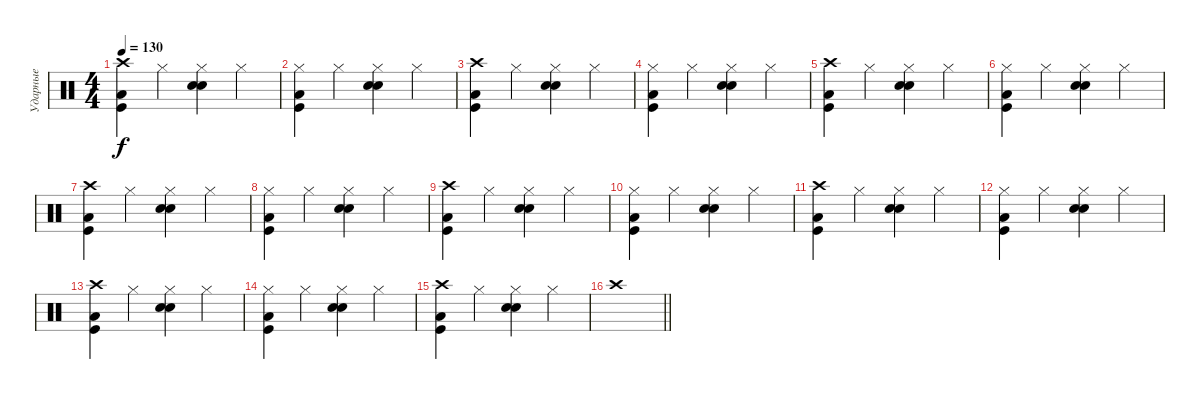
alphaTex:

\track ("Ударные" "Ударные") {instrument percussion}
\staff {score}
\articulation defaults
\ts (4 4)
\tempo 130
\clef neutral
\ks c
("Crash high (hit)" "Low Tom (hit)" "Kick (hit)").4{dy f} "Hi-Hat (closed)".4 ("Hi-Hat (closed)" "Electric Snare (hit)" "Snare (hit) 2").4 "Hi-Hat (closed)".4 |
("Hi-Hat (closed)" "Low Tom (hit)" "Kick (hit)").4 "Hi-Hat (closed)".4 ("Hi-Hat (closed)" "Electric Snare (hit)" "Snare (hit) 2").4 "Hi-Hat (closed)".4 |
("Crash high (hit)" "Low Tom (hit)" "Kick (hit)").4 "Hi-Hat (closed)".4 ("Hi-Hat (closed)" "Electric Snare (hit)" "Snare (hit) 2").4 "Hi-Hat (closed)".4 |
("Hi-Hat (closed)" "Low Tom (hit)" "Kick (hit)").4 "Hi-Hat (closed)".4 ("Hi-Hat (closed)" "Electric Snare (hit)" "Snare (hit) 2").4 "Hi-Hat (closed)".4 |
("Crash high (hit)" "Low Tom (hit)" "Kick (hit)").4 "Hi-Hat (closed)".4 ("Hi-Hat (closed)" "Electric Snare (hit)" "Snare (hit) 2").4 "Hi-Hat (closed)".4 |
("Hi-Hat (closed)" "Low Tom (hit)" "Kick (hit)").4 "Hi-Hat (closed)".4 ("Hi-Hat (closed)" "Electric Snare (hit)" "Snare (hit) 2").4 "Hi-Hat (closed)".4 |
("Crash high (hit)" "Low Tom (hit)" "Kick (hit)").4 "Hi-Hat (closed)".4 ("Hi-Hat (closed)" "Electric Snare (hit)" "Snare (hit) 2").4 "Hi-Hat (closed)".4 |
("Hi-Hat (closed)" "Low Tom (hit)" "Kick (hit)").4 "Hi-Hat (closed)".4 ("Hi-Hat (closed)" "Electric Snare (hit)" "Snare (hit) 2").4 "Hi-Hat (closed)".4 |
("Crash high (hit)" "Low Tom (hit)" "Kick (hit)").4 "Hi-Hat (closed)".4 ("Hi-Hat (closed)" "Electric Snare (hit)" "Snare (hit) 2").4 "Hi-Hat (closed)".4 |
("Hi-Hat (closed)" "Low Tom (hit)" "Kick (hit)").4 "Hi-Hat (closed)".4 ("Hi-Hat (closed)" "Electric Snare (hit)" "Snare (hit) 2").4 "Hi-Hat (closed)".4 |
("Crash high (hit)" "Low Tom (hit)" "Kick (hit)").4 "Hi-Hat (closed)".4 ("Hi-Hat (closed)" "Electric Snare (hit)" "Snare (hit) 2").4 "Hi-Hat (closed)".4 |
("Hi-Hat (closed)" "Low Tom (hit)" "Kick (hit)").4 "Hi-Hat (closed)".4 ("Hi-Hat (closed)" "Electric Snare (hit)" "Snare (hit) 2").4 "Hi-Hat (closed)".4 |
("Crash high (hit)" "Low Tom (hit)" "Kick (hit)").4 "Hi-Hat (closed)".4 ("Hi-Hat (closed)" "Electric Snare (hit)" "Snare (hit) 2").4 "Hi-Hat (closed)".4 |
("Hi-Hat (closed)" "Low Tom (hit)" "Kick (hit)").4 "Hi-Hat (closed)".4 ("Hi-Hat (closed)" "Electric Snare (hit)" "Snare (hit) 2").4 "Hi-Hat (closed)".4 |
("Crash high (hit)" "Low Tom (hit)" "Kick (hit)").4 "Hi-Hat (closed)".4 ("Hi-Hat (closed)" "Electric Snare (hit)" "Snare (hit) 2").4 "Hi-Hat (closed)".4 |
\barLineRight lightlight "Crash high (hit)".1
